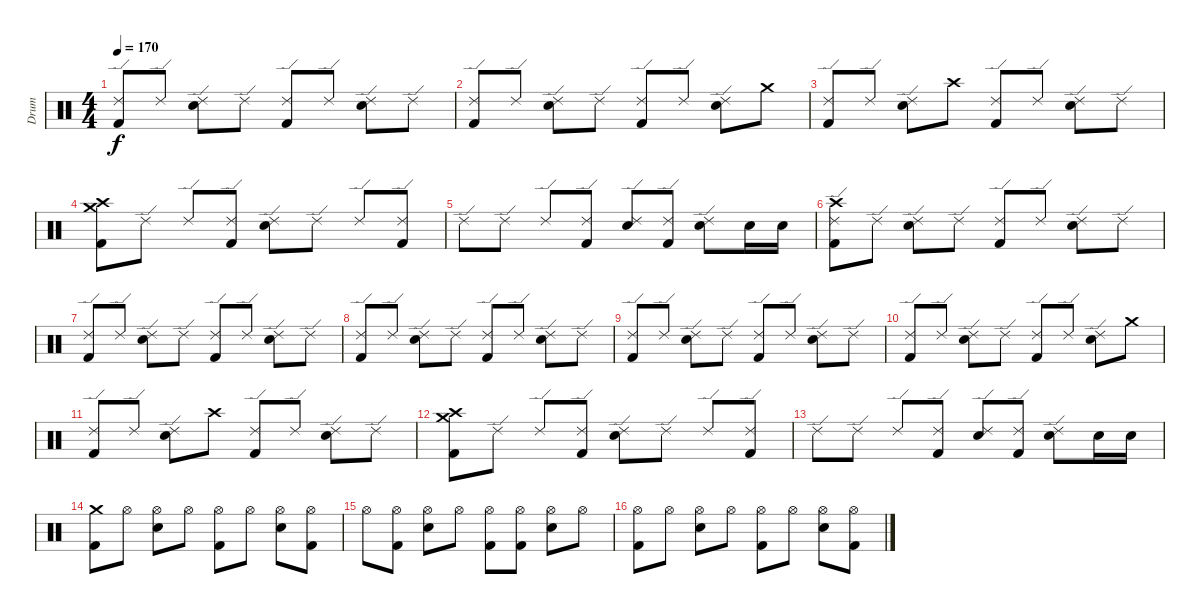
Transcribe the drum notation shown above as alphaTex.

\track ("Drum" "Drum") {instrument percussion}
\staff {score}
\articulation defaults
\ts (4 4)
\tempo 170
\clef neutral
\ks c
("Kick (hit) 2" "Ride (edge) 2").8{dy f} "Ride (edge) 2".8 ("Electric Snare (hit)" "Ride (edge) 2").8 "Ride (edge) 2".8 ("Kick (hit) 2" "Ride (edge) 2").8 "Ride (edge) 2".8 ("Electric Snare (hit)" "Ride (edge) 2").8 "Ride (edge) 2".8 |
("Kick (hit) 2" "Ride (edge) 2").8 "Ride (edge) 2".8 ("Electric Snare (hit)" "Ride (edge) 2").8 "Ride (edge) 2".8 ("Kick (hit) 2" "Ride (edge) 2").8 "Ride (edge) 2".8 ("Electric Snare (hit)" "Ride (edge) 2").8 "Crash medium (hit)".8 |
("Kick (hit) 2" "Ride (edge) 2").8 "Ride (edge) 2".8 ("Electric Snare (hit)" "Ride (edge) 2").8 "Crash high (hit)".8 ("Kick (hit) 2" "Ride (edge) 2").8 "Ride (edge) 2".8 ("Electric Snare (hit)" "Ride (edge) 2").8 "Ride (edge) 2".8 |
("Kick (hit) 2" "Crash medium (hit)" "Crash high (hit)").8 "Ride (edge) 2".8 "Ride (edge) 2".8 ("Kick (hit) 2" "Ride (edge) 2").8 ("Electric Snare (hit)" "Ride (edge) 2").8 "Ride (edge) 2".8 "Ride (edge) 2".8 ("Kick (hit) 2" "Ride (edge) 2").8 |
"Ride (edge) 2".8 "Ride (edge) 2".8 "Ride (edge) 2".8 ("Kick (hit) 2" "Ride (edge) 2").8 ("Electric Snare (hit)" "Ride (edge) 2").8 ("Kick (hit) 2" "Ride (edge) 2").8 ("Electric Snare (hit)" "Ride (edge) 2").8 "Electric Snare (hit)".16 "Electric Snare (hit)".16 |
("Kick (hit) 2" "Ride (edge) 2" "Crash high (hit)").8 "Ride (edge) 2".8 ("Electric Snare (hit)" "Ride (edge) 2").8 "Ride (edge) 2".8 ("Kick (hit) 2" "Ride (edge) 2").8 "Ride (edge) 2".8 ("Electric Snare (hit)" "Ride (edge) 2").8 "Ride (edge) 2".8 |
("Kick (hit) 2" "Ride (edge) 2").8 "Ride (edge) 2".8 ("Electric Snare (hit)" "Ride (edge) 2").8 "Ride (edge) 2".8 ("Kick (hit) 2" "Ride (edge) 2").8 "Ride (edge) 2".8 ("Electric Snare (hit)" "Ride (edge) 2").8 "Ride (edge) 2".8 |
("Kick (hit) 2" "Ride (edge) 2").8 "Ride (edge) 2".8 ("Electric Snare (hit)" "Ride (edge) 2").8 "Ride (edge) 2".8 ("Kick (hit) 2" "Ride (edge) 2").8 "Ride (edge) 2".8 ("Electric Snare (hit)" "Ride (edge) 2").8 "Ride (edge) 2".8 |
("Kick (hit) 2" "Ride (edge) 2").8 "Ride (edge) 2".8 ("Electric Snare (hit)" "Ride (edge) 2").8 "Ride (edge) 2".8 ("Kick (hit) 2" "Ride (edge) 2").8 "Ride (edge) 2".8 ("Electric Snare (hit)" "Ride (edge) 2").8 "Ride (edge) 2".8 |
("Kick (hit) 2" "Ride (edge) 2").8 "Ride (edge) 2".8 ("Electric Snare (hit)" "Ride (edge) 2").8 "Ride (edge) 2".8 ("Kick (hit) 2" "Ride (edge) 2").8 "Ride (edge) 2".8 ("Electric Snare (hit)" "Ride (edge) 2").8 "Crash medium (hit)".8 |
("Kick (hit) 2" "Ride (edge) 2").8 "Ride (edge) 2".8 ("Electric Snare (hit)" "Ride (edge) 2").8 "Crash high (hit)".8 ("Kick (hit) 2" "Ride (edge) 2").8 "Ride (edge) 2".8 ("Electric Snare (hit)" "Ride (edge) 2").8 "Ride (edge) 2".8 |
("Kick (hit) 2" "Crash medium (hit)" "Crash high (hit)").8 "Ride (edge) 2".8 "Ride (edge) 2".8 ("Kick (hit) 2" "Ride (edge) 2").8 ("Electric Snare (hit)" "Ride (edge) 2").8 "Ride (edge) 2".8 "Ride (edge) 2".8 ("Kick (hit) 2" "Ride (edge) 2").8 |
"Ride (edge) 2".8 "Ride (edge) 2".8 "Ride (edge) 2".8 ("Kick (hit) 2" "Ride (edge) 2").8 ("Electric Snare (hit)" "Ride (edge) 2").8 ("Kick (hit) 2" "Ride (edge) 2").8 ("Electric Snare (hit)" "Ride (edge) 2").8 "Electric Snare (hit)".16 "Electric Snare (hit)".16 |
("Kick (hit) 2" "Crash medium (hit)").8 "Hi-Hat (open)".8 ("Electric Snare (hit)" "Hi-Hat (open)").8 "Hi-Hat (open)".8 ("Kick (hit) 2" "Hi-Hat (open)").8 "Hi-Hat (open)".8 ("Electric Snare (hit)" "Hi-Hat (open)").8 ("Kick (hit) 2" "Hi-Hat (open)").8 |
"Hi-Hat (open)".8 ("Kick (hit) 2" "Hi-Hat (open)").8 ("Electric Snare (hit)" "Hi-Hat (open)").8 "Hi-Hat (open)".8 ("Kick (hit) 2" "Hi-Hat (open)").8 ("Kick (hit) 2" "Hi-Hat (open)").8 ("Electric Snare (hit)" "Hi-Hat (open)").8 "Hi-Hat (open)".8 |
("Kick (hit) 2" "Hi-Hat (open)").8 "Hi-Hat (open)".8 ("Electric Snare (hit)" "Hi-Hat (open)").8 "Hi-Hat (open)".8 ("Kick (hit) 2" "Hi-Hat (open)").8 "Hi-Hat (open)".8 ("Electric Snare (hit)" "Hi-Hat (open)").8 ("Kick (hit) 2" "Hi-Hat (open)").8
